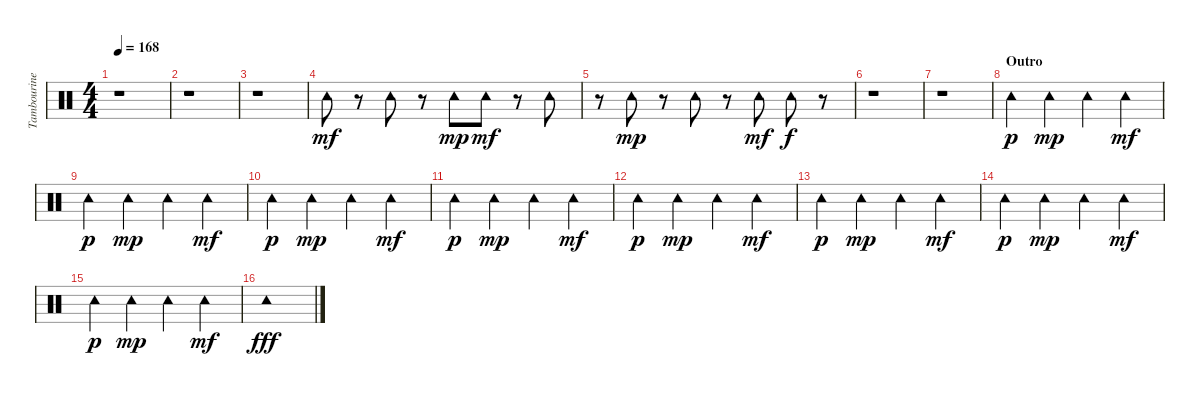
\track ("Tambourine" "Tambourine") {instrument percussion}
\staff {score}
\articulation defaults
\ts (4 4)
\tempo 168
\clef neutral
\ks c
r.1{dy mf} |
r.1 |
r.1 |
"Tambourine (hit)".8 r.8 "Tambourine (hit)".8 r.8 "Tambourine (hit)".8{dy mp} "Tambourine (hit)".8{dy mf} r.8 "Tambourine (hit)".8 |
r.8 "Tambourine (hit)".8{dy mp} r.8 "Tambourine (hit)".8 r.8 "Tambourine (hit)".8{dy mf} "Tambourine (hit)".8{dy f} r.8 |
r.1 |
r.1 |
\section ("" "Outro")
"Tambourine (hit)".4{dy p} "Tambourine (hit)".4{dy mp} "Tambourine (hit)".4 "Tambourine (hit)".4{dy mf} |
"Tambourine (hit)".4{dy p} "Tambourine (hit)".4{dy mp} "Tambourine (hit)".4 "Tambourine (hit)".4{dy mf} |
"Tambourine (hit)".4{dy p} "Tambourine (hit)".4{dy mp} "Tambourine (hit)".4 "Tambourine (hit)".4{dy mf} |
"Tambourine (hit)".4{dy p} "Tambourine (hit)".4{dy mp} "Tambourine (hit)".4 "Tambourine (hit)".4{dy mf} |
"Tambourine (hit)".4{dy p} "Tambourine (hit)".4{dy mp} "Tambourine (hit)".4 "Tambourine (hit)".4{dy mf} |
"Tambourine (hit)".4{dy p} "Tambourine (hit)".4{dy mp} "Tambourine (hit)".4 "Tambourine (hit)".4{dy mf} |
"Tambourine (hit)".4{dy p} "Tambourine (hit)".4{dy mp} "Tambourine (hit)".4 "Tambourine (hit)".4{dy mf} |
"Tambourine (hit)".4{dy p} "Tambourine (hit)".4{dy mp} "Tambourine (hit)".4 "Tambourine (hit)".4{dy mf} |
"Tambourine (hit)".1{dy fff}
